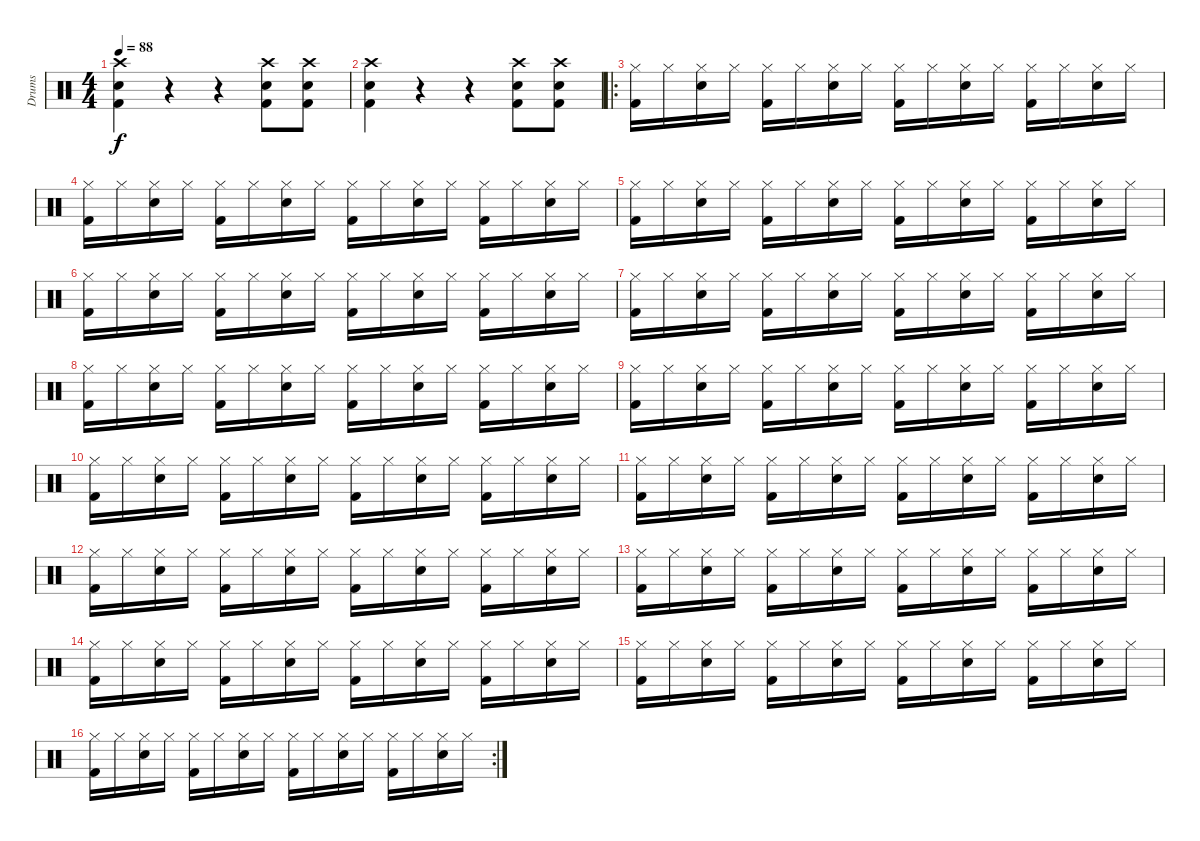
\track ("Drums" "Drums") {instrument percussion}
\staff {score}
\articulation defaults
\ts (4 4)
\tempo 88
\clef neutral
\ks c
("Crash high (hit)" "Kick (hit) 2" "Electric Snare (hit)").4{dy f} r.4 r.4 ("Crash high (hit)" "Kick (hit) 2" "Electric Snare (hit)").8 ("Crash high (hit)" "Kick (hit) 2" "Electric Snare (hit)").8 |
("Crash high (hit)" "Kick (hit) 2" "Electric Snare (hit)").4 r.4 r.4 ("Crash high (hit)" "Kick (hit) 2" "Electric Snare (hit)").8 ("Crash high (hit)" "Kick (hit) 2" "Electric Snare (hit)").8 |
\ro
("Hi-Hat (closed)" "Kick (hit) 2").16 "Hi-Hat (closed)".16 ("Hi-Hat (closed)" "Electric Snare (hit)").16 "Hi-Hat (closed)".16 ("Hi-Hat (closed)" "Kick (hit) 2").16 "Hi-Hat (closed)".16 ("Hi-Hat (closed)" "Electric Snare (hit)").16 "Hi-Hat (closed)".16 ("Hi-Hat (closed)" "Kick (hit) 2").16 "Hi-Hat (closed)".16 ("Hi-Hat (closed)" "Electric Snare (hit)").16 "Hi-Hat (closed)".16 ("Hi-Hat (closed)" "Kick (hit) 2").16 "Hi-Hat (closed)".16 ("Hi-Hat (closed)" "Electric Snare (hit)").16 "Hi-Hat (closed)".16 |
("Hi-Hat (closed)" "Kick (hit) 2").16 "Hi-Hat (closed)".16 ("Hi-Hat (closed)" "Electric Snare (hit)").16 "Hi-Hat (closed)".16 ("Hi-Hat (closed)" "Kick (hit) 2").16 "Hi-Hat (closed)".16 ("Hi-Hat (closed)" "Electric Snare (hit)").16 "Hi-Hat (closed)".16 ("Hi-Hat (closed)" "Kick (hit) 2").16 "Hi-Hat (closed)".16 ("Hi-Hat (closed)" "Electric Snare (hit)").16 "Hi-Hat (closed)".16 ("Hi-Hat (closed)" "Kick (hit) 2").16 "Hi-Hat (closed)".16 ("Hi-Hat (closed)" "Electric Snare (hit)").16 "Hi-Hat (closed)".16 |
("Hi-Hat (closed)" "Kick (hit) 2").16 "Hi-Hat (closed)".16 ("Hi-Hat (closed)" "Electric Snare (hit)").16 "Hi-Hat (closed)".16 ("Hi-Hat (closed)" "Kick (hit) 2").16 "Hi-Hat (closed)".16 ("Hi-Hat (closed)" "Electric Snare (hit)").16 "Hi-Hat (closed)".16 ("Hi-Hat (closed)" "Kick (hit) 2").16 "Hi-Hat (closed)".16 ("Hi-Hat (closed)" "Electric Snare (hit)").16 "Hi-Hat (closed)".16 ("Hi-Hat (closed)" "Kick (hit) 2").16 "Hi-Hat (closed)".16 ("Hi-Hat (closed)" "Electric Snare (hit)").16 "Hi-Hat (closed)".16 |
("Hi-Hat (closed)" "Kick (hit) 2").16 "Hi-Hat (closed)".16 ("Hi-Hat (closed)" "Electric Snare (hit)").16 "Hi-Hat (closed)".16 ("Hi-Hat (closed)" "Kick (hit) 2").16 "Hi-Hat (closed)".16 ("Hi-Hat (closed)" "Electric Snare (hit)").16 "Hi-Hat (closed)".16 ("Hi-Hat (closed)" "Kick (hit) 2").16 "Hi-Hat (closed)".16 ("Hi-Hat (closed)" "Electric Snare (hit)").16 "Hi-Hat (closed)".16 ("Hi-Hat (closed)" "Kick (hit) 2").16 "Hi-Hat (closed)".16 ("Hi-Hat (closed)" "Electric Snare (hit)").16 "Hi-Hat (closed)".16 |
("Hi-Hat (closed)" "Kick (hit) 2").16 "Hi-Hat (closed)".16 ("Hi-Hat (closed)" "Electric Snare (hit)").16 "Hi-Hat (closed)".16 ("Hi-Hat (closed)" "Kick (hit) 2").16 "Hi-Hat (closed)".16 ("Hi-Hat (closed)" "Electric Snare (hit)").16 "Hi-Hat (closed)".16 ("Hi-Hat (closed)" "Kick (hit) 2").16 "Hi-Hat (closed)".16 ("Hi-Hat (closed)" "Electric Snare (hit)").16 "Hi-Hat (closed)".16 ("Hi-Hat (closed)" "Kick (hit) 2").16 "Hi-Hat (closed)".16 ("Hi-Hat (closed)" "Electric Snare (hit)").16 "Hi-Hat (closed)".16 |
("Hi-Hat (closed)" "Kick (hit) 2").16 "Hi-Hat (closed)".16 ("Hi-Hat (closed)" "Electric Snare (hit)").16 "Hi-Hat (closed)".16 ("Hi-Hat (closed)" "Kick (hit) 2").16 "Hi-Hat (closed)".16 ("Hi-Hat (closed)" "Electric Snare (hit)").16 "Hi-Hat (closed)".16 ("Hi-Hat (closed)" "Kick (hit) 2").16 "Hi-Hat (closed)".16 ("Hi-Hat (closed)" "Electric Snare (hit)").16 "Hi-Hat (closed)".16 ("Hi-Hat (closed)" "Kick (hit) 2").16 "Hi-Hat (closed)".16 ("Hi-Hat (closed)" "Electric Snare (hit)").16 "Hi-Hat (closed)".16 |
("Hi-Hat (closed)" "Kick (hit) 2").16 "Hi-Hat (closed)".16 ("Hi-Hat (closed)" "Electric Snare (hit)").16 "Hi-Hat (closed)".16 ("Hi-Hat (closed)" "Kick (hit) 2").16 "Hi-Hat (closed)".16 ("Hi-Hat (closed)" "Electric Snare (hit)").16 "Hi-Hat (closed)".16 ("Hi-Hat (closed)" "Kick (hit) 2").16 "Hi-Hat (closed)".16 ("Hi-Hat (closed)" "Electric Snare (hit)").16 "Hi-Hat (closed)".16 ("Hi-Hat (closed)" "Kick (hit) 2").16 "Hi-Hat (closed)".16 ("Hi-Hat (closed)" "Electric Snare (hit)").16 "Hi-Hat (closed)".16 |
("Hi-Hat (closed)" "Kick (hit) 2").16 "Hi-Hat (closed)".16 ("Hi-Hat (closed)" "Electric Snare (hit)").16 "Hi-Hat (closed)".16 ("Hi-Hat (closed)" "Kick (hit) 2").16 "Hi-Hat (closed)".16 ("Hi-Hat (closed)" "Electric Snare (hit)").16 "Hi-Hat (closed)".16 ("Hi-Hat (closed)" "Kick (hit) 2").16 "Hi-Hat (closed)".16 ("Hi-Hat (closed)" "Electric Snare (hit)").16 "Hi-Hat (closed)".16 ("Hi-Hat (closed)" "Kick (hit) 2").16 "Hi-Hat (closed)".16 ("Hi-Hat (closed)" "Electric Snare (hit)").16 "Hi-Hat (closed)".16 |
("Hi-Hat (closed)" "Kick (hit) 2").16 "Hi-Hat (closed)".16 ("Hi-Hat (closed)" "Electric Snare (hit)").16 "Hi-Hat (closed)".16 ("Hi-Hat (closed)" "Kick (hit) 2").16 "Hi-Hat (closed)".16 ("Hi-Hat (closed)" "Electric Snare (hit)").16 "Hi-Hat (closed)".16 ("Hi-Hat (closed)" "Kick (hit) 2").16 "Hi-Hat (closed)".16 ("Hi-Hat (closed)" "Electric Snare (hit)").16 "Hi-Hat (closed)".16 ("Hi-Hat (closed)" "Kick (hit) 2").16 "Hi-Hat (closed)".16 ("Hi-Hat (closed)" "Electric Snare (hit)").16 "Hi-Hat (closed)".16 |
("Hi-Hat (closed)" "Kick (hit) 2").16 "Hi-Hat (closed)".16 ("Hi-Hat (closed)" "Electric Snare (hit)").16 "Hi-Hat (closed)".16 ("Hi-Hat (closed)" "Kick (hit) 2").16 "Hi-Hat (closed)".16 ("Hi-Hat (closed)" "Electric Snare (hit)").16 "Hi-Hat (closed)".16 ("Hi-Hat (closed)" "Kick (hit) 2").16 "Hi-Hat (closed)".16 ("Hi-Hat (closed)" "Electric Snare (hit)").16 "Hi-Hat (closed)".16 ("Hi-Hat (closed)" "Kick (hit) 2").16 "Hi-Hat (closed)".16 ("Hi-Hat (closed)" "Electric Snare (hit)").16 "Hi-Hat (closed)".16 |
("Hi-Hat (closed)" "Kick (hit) 2").16 "Hi-Hat (closed)".16 ("Hi-Hat (closed)" "Electric Snare (hit)").16 "Hi-Hat (closed)".16 ("Hi-Hat (closed)" "Kick (hit) 2").16 "Hi-Hat (closed)".16 ("Hi-Hat (closed)" "Electric Snare (hit)").16 "Hi-Hat (closed)".16 ("Hi-Hat (closed)" "Kick (hit) 2").16 "Hi-Hat (closed)".16 ("Hi-Hat (closed)" "Electric Snare (hit)").16 "Hi-Hat (closed)".16 ("Hi-Hat (closed)" "Kick (hit) 2").16 "Hi-Hat (closed)".16 ("Hi-Hat (closed)" "Electric Snare (hit)").16 "Hi-Hat (closed)".16 |
("Hi-Hat (closed)" "Kick (hit) 2").16 "Hi-Hat (closed)".16 ("Hi-Hat (closed)" "Electric Snare (hit)").16 "Hi-Hat (closed)".16 ("Hi-Hat (closed)" "Kick (hit) 2").16 "Hi-Hat (closed)".16 ("Hi-Hat (closed)" "Electric Snare (hit)").16 "Hi-Hat (closed)".16 ("Hi-Hat (closed)" "Kick (hit) 2").16 "Hi-Hat (closed)".16 ("Hi-Hat (closed)" "Electric Snare (hit)").16 "Hi-Hat (closed)".16 ("Hi-Hat (closed)" "Kick (hit) 2").16 "Hi-Hat (closed)".16 ("Hi-Hat (closed)" "Electric Snare (hit)").16 "Hi-Hat (closed)".16 |
("Hi-Hat (closed)" "Kick (hit) 2").16 "Hi-Hat (closed)".16 ("Hi-Hat (closed)" "Electric Snare (hit)").16 "Hi-Hat (closed)".16 ("Hi-Hat (closed)" "Kick (hit) 2").16 "Hi-Hat (closed)".16 ("Hi-Hat (closed)" "Electric Snare (hit)").16 "Hi-Hat (closed)".16 ("Hi-Hat (closed)" "Kick (hit) 2").16 "Hi-Hat (closed)".16 ("Hi-Hat (closed)" "Electric Snare (hit)").16 "Hi-Hat (closed)".16 ("Hi-Hat (closed)" "Kick (hit) 2").16 "Hi-Hat (closed)".16 ("Hi-Hat (closed)" "Electric Snare (hit)").16 "Hi-Hat (closed)".16 |
\rc 2
("Hi-Hat (closed)" "Kick (hit) 2").16 "Hi-Hat (closed)".16 ("Hi-Hat (closed)" "Electric Snare (hit)").16 "Hi-Hat (closed)".16 ("Hi-Hat (closed)" "Kick (hit) 2").16 "Hi-Hat (closed)".16 ("Hi-Hat (closed)" "Electric Snare (hit)").16 "Hi-Hat (closed)".16 ("Hi-Hat (closed)" "Kick (hit) 2").16 "Hi-Hat (closed)".16 ("Hi-Hat (closed)" "Electric Snare (hit)").16 "Hi-Hat (closed)".16 ("Hi-Hat (closed)" "Kick (hit) 2").16 "Hi-Hat (closed)".16 ("Hi-Hat (closed)" "Electric Snare (hit)").16 "Hi-Hat (closed)".16
